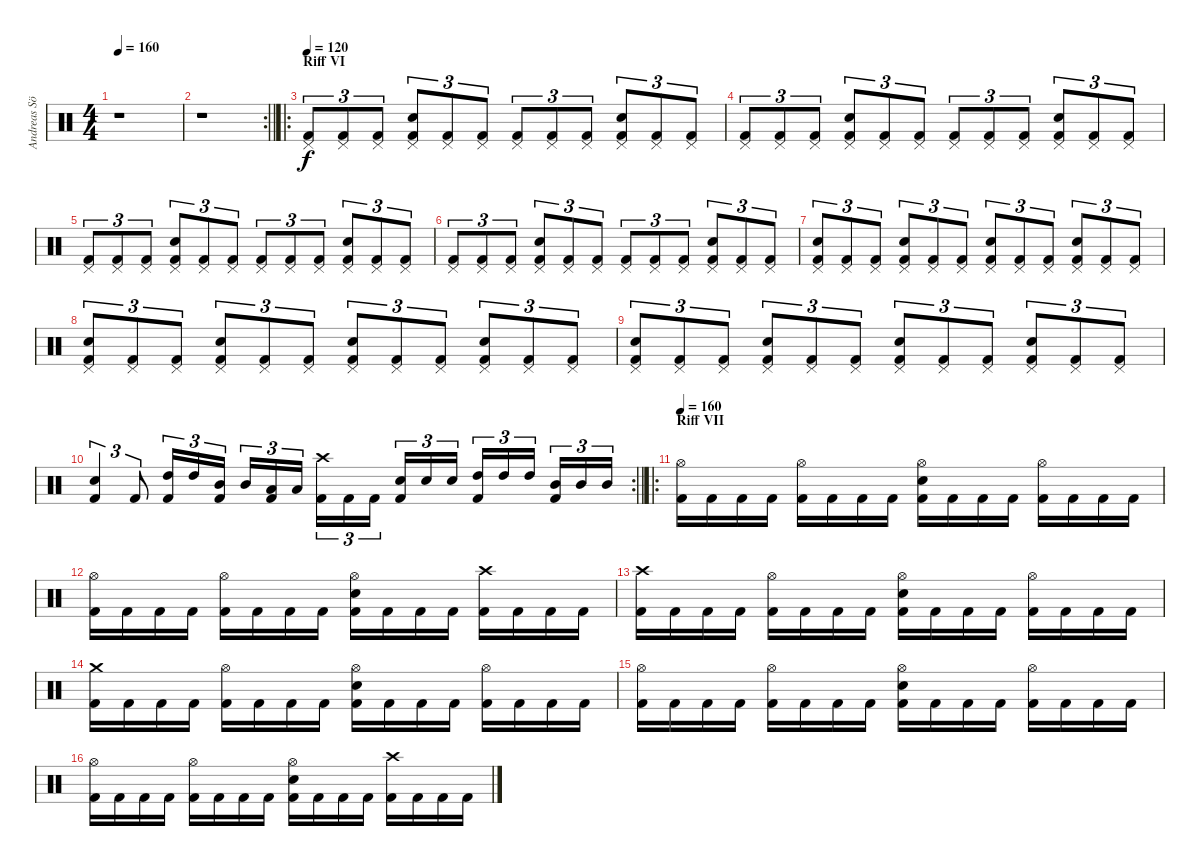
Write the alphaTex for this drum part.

\track ("Andreas Söderlund" "Andreas Sö") {instrument percussion}
\staff {score}
\articulation defaults
\ts (4 4)
\tempo 160
\clef neutral
\ks c
r.1{dy f} |
\rc 2
\barLineRight lightlight
r.1 |
\ro
\section ("" "Riff VI")
\tempo 120
("Pedal Hi-Hat (hit)" "Kick (hit) 2").8{tu (3 2)} ("Pedal Hi-Hat (hit)" "Kick (hit) 2").8{tu (3 2)} ("Pedal Hi-Hat (hit)" "Kick (hit) 2").8{tu (3 2)} ("Pedal Hi-Hat (hit)" "Electric Snare (hit)" "Kick (hit) 2").8{tu (3 2)} ("Pedal Hi-Hat (hit)" "Kick (hit) 2").8{tu (3 2)} ("Pedal Hi-Hat (hit)" "Kick (hit) 2").8{tu (3 2)} ("Pedal Hi-Hat (hit)" "Kick (hit) 2").8{tu (3 2)} ("Pedal Hi-Hat (hit)" "Kick (hit) 2").8{tu (3 2)} ("Pedal Hi-Hat (hit)" "Kick (hit) 2").8{tu (3 2)} ("Pedal Hi-Hat (hit)" "Electric Snare (hit)" "Kick (hit) 2").8{tu (3 2)} ("Pedal Hi-Hat (hit)" "Kick (hit) 2").8{tu (3 2)} ("Pedal Hi-Hat (hit)" "Kick (hit) 2").8{tu (3 2)} |
("Pedal Hi-Hat (hit)" "Kick (hit) 2").8{tu (3 2)} ("Pedal Hi-Hat (hit)" "Kick (hit) 2").8{tu (3 2)} ("Pedal Hi-Hat (hit)" "Kick (hit) 2").8{tu (3 2)} ("Pedal Hi-Hat (hit)" "Electric Snare (hit)" "Kick (hit) 2").8{tu (3 2)} ("Pedal Hi-Hat (hit)" "Kick (hit) 2").8{tu (3 2)} ("Pedal Hi-Hat (hit)" "Kick (hit) 2").8{tu (3 2)} ("Pedal Hi-Hat (hit)" "Kick (hit) 2").8{tu (3 2)} ("Pedal Hi-Hat (hit)" "Kick (hit) 2").8{tu (3 2)} ("Pedal Hi-Hat (hit)" "Kick (hit) 2").8{tu (3 2)} ("Pedal Hi-Hat (hit)" "Electric Snare (hit)" "Kick (hit) 2").8{tu (3 2)} ("Pedal Hi-Hat (hit)" "Kick (hit) 2").8{tu (3 2)} ("Pedal Hi-Hat (hit)" "Kick (hit) 2").8{tu (3 2)} |
("Pedal Hi-Hat (hit)" "Kick (hit) 2").8{tu (3 2)} ("Pedal Hi-Hat (hit)" "Kick (hit) 2").8{tu (3 2)} ("Pedal Hi-Hat (hit)" "Kick (hit) 2").8{tu (3 2)} ("Pedal Hi-Hat (hit)" "Electric Snare (hit)" "Kick (hit) 2").8{tu (3 2)} ("Pedal Hi-Hat (hit)" "Kick (hit) 2").8{tu (3 2)} ("Pedal Hi-Hat (hit)" "Kick (hit) 2").8{tu (3 2)} ("Pedal Hi-Hat (hit)" "Kick (hit) 2").8{tu (3 2)} ("Pedal Hi-Hat (hit)" "Kick (hit) 2").8{tu (3 2)} ("Pedal Hi-Hat (hit)" "Kick (hit) 2").8{tu (3 2)} ("Pedal Hi-Hat (hit)" "Electric Snare (hit)" "Kick (hit) 2").8{tu (3 2)} ("Pedal Hi-Hat (hit)" "Kick (hit) 2").8{tu (3 2)} ("Pedal Hi-Hat (hit)" "Kick (hit) 2").8{tu (3 2)} |
("Pedal Hi-Hat (hit)" "Kick (hit) 2").8{tu (3 2)} ("Pedal Hi-Hat (hit)" "Kick (hit) 2").8{tu (3 2)} ("Pedal Hi-Hat (hit)" "Kick (hit) 2").8{tu (3 2)} ("Pedal Hi-Hat (hit)" "Electric Snare (hit)" "Kick (hit) 2").8{tu (3 2)} ("Pedal Hi-Hat (hit)" "Kick (hit) 2").8{tu (3 2)} ("Pedal Hi-Hat (hit)" "Kick (hit) 2").8{tu (3 2)} ("Pedal Hi-Hat (hit)" "Kick (hit) 2").8{tu (3 2)} ("Pedal Hi-Hat (hit)" "Kick (hit) 2").8{tu (3 2)} ("Pedal Hi-Hat (hit)" "Kick (hit) 2").8{tu (3 2)} ("Pedal Hi-Hat (hit)" "Electric Snare (hit)" "Kick (hit) 2").8{tu (3 2)} ("Pedal Hi-Hat (hit)" "Kick (hit) 2").8{tu (3 2)} ("Pedal Hi-Hat (hit)" "Kick (hit) 2").8{tu (3 2)} |
("Pedal Hi-Hat (hit)" "Electric Snare (hit)" "Kick (hit) 2").8{tu (3 2)} ("Pedal Hi-Hat (hit)" "Kick (hit) 2").8{tu (3 2)} ("Pedal Hi-Hat (hit)" "Kick (hit) 2").8{tu (3 2)} ("Pedal Hi-Hat (hit)" "Electric Snare (hit)" "Kick (hit) 2").8{tu (3 2)} ("Pedal Hi-Hat (hit)" "Kick (hit) 2").8{tu (3 2)} ("Pedal Hi-Hat (hit)" "Kick (hit) 2").8{tu (3 2)} ("Pedal Hi-Hat (hit)" "Electric Snare (hit)" "Kick (hit) 2").8{tu (3 2)} ("Pedal Hi-Hat (hit)" "Kick (hit) 2").8{tu (3 2)} ("Pedal Hi-Hat (hit)" "Kick (hit) 2").8{tu (3 2)} ("Pedal Hi-Hat (hit)" "Electric Snare (hit)" "Kick (hit) 2").8{tu (3 2)} ("Pedal Hi-Hat (hit)" "Kick (hit) 2").8{tu (3 2)} ("Pedal Hi-Hat (hit)" "Kick (hit) 2").8{tu (3 2)} |
("Pedal Hi-Hat (hit)" "Electric Snare (hit)" "Kick (hit) 2").8{tu (3 2)} ("Pedal Hi-Hat (hit)" "Kick (hit) 2").8{tu (3 2)} ("Pedal Hi-Hat (hit)" "Kick (hit) 2").8{tu (3 2)} ("Pedal Hi-Hat (hit)" "Electric Snare (hit)" "Kick (hit) 2").8{tu (3 2)} ("Pedal Hi-Hat (hit)" "Kick (hit) 2").8{tu (3 2)} ("Pedal Hi-Hat (hit)" "Kick (hit) 2").8{tu (3 2)} ("Pedal Hi-Hat (hit)" "Electric Snare (hit)" "Kick (hit) 2").8{tu (3 2)} ("Pedal Hi-Hat (hit)" "Kick (hit) 2").8{tu (3 2)} ("Pedal Hi-Hat (hit)" "Kick (hit) 2").8{tu (3 2)} ("Pedal Hi-Hat (hit)" "Electric Snare (hit)" "Kick (hit) 2").8{tu (3 2)} ("Pedal Hi-Hat (hit)" "Kick (hit) 2").8{tu (3 2)} ("Pedal Hi-Hat (hit)" "Kick (hit) 2").8{tu (3 2)} |
("Pedal Hi-Hat (hit)" "Electric Snare (hit)" "Kick (hit) 2").8{tu (3 2)} ("Pedal Hi-Hat (hit)" "Kick (hit) 2").8{tu (3 2)} ("Pedal Hi-Hat (hit)" "Kick (hit) 2").8{tu (3 2)} ("Pedal Hi-Hat (hit)" "Electric Snare (hit)" "Kick (hit) 2").8{tu (3 2)} ("Pedal Hi-Hat (hit)" "Kick (hit) 2").8{tu (3 2)} ("Pedal Hi-Hat (hit)" "Kick (hit) 2").8{tu (3 2)} ("Pedal Hi-Hat (hit)" "Electric Snare (hit)" "Kick (hit) 2").8{tu (3 2)} ("Pedal Hi-Hat (hit)" "Kick (hit) 2").8{tu (3 2)} ("Pedal Hi-Hat (hit)" "Kick (hit) 2").8{tu (3 2)} ("Pedal Hi-Hat (hit)" "Electric Snare (hit)" "Kick (hit) 2").8{tu (3 2)} ("Pedal Hi-Hat (hit)" "Kick (hit) 2").8{tu (3 2)} ("Pedal Hi-Hat (hit)" "Kick (hit) 2").8{tu (3 2)} |
\rc 2
\barLineRight lightlight
("Electric Snare (hit)" "Kick (hit) 2").4{tu (3 2)} "Kick (hit) 2".8{tu (3 2)} ("High Tom (hit)" "Kick (hit) 2").16{tu (3 2)} "High Tom (hit)".16{tu (3 2)} ("Mid Tom (hit)" "Kick (hit) 2").16{tu (3 2) beam splitsecondary} "Mid Tom (hit)".16{tu (3 2)} ("Low Tom (hit)" "Kick (hit) 2").16{tu (3 2)} "Low Tom (hit)".16{tu (3 2)} ("Crash high (hit)" "Kick (hit) 2").16{tu (3 2)} "Kick (hit) 2".16{tu (3 2)} "Kick (hit) 2".16{tu (3 2) beam splitsecondary} ("Electric Snare (hit)" "Kick (hit) 2").16{tu (3 2)} "Electric Snare (hit)".16{tu (3 2)} "Electric Snare (hit)".16{tu (3 2)} ("High Tom (hit)" "Kick (hit) 2").16{tu (3 2)} "High Tom (hit)".16{tu (3 2)} "High Tom (hit)".16{tu (3 2) beam splitsecondary} ("Mid Tom (hit)" "Kick (hit) 2").16{tu (3 2)} "Mid Tom (hit)".16{tu (3 2)} "Mid Tom (hit)".16{tu (3 2)} |
\ro
\section ("" "Riff VII")
\tempo 160
("Hi-Hat (open)" "Kick (hit) 2").16 "Kick (hit) 2".16 "Kick (hit) 2".16 "Kick (hit) 2".16 ("Hi-Hat (open)" "Kick (hit) 2").16 "Kick (hit) 2".16 "Kick (hit) 2".16 "Kick (hit) 2".16 ("Hi-Hat (open)" "Electric Snare (hit)" "Kick (hit) 2").16 "Kick (hit) 2".16 "Kick (hit) 2".16 "Kick (hit) 2".16 ("Hi-Hat (open)" "Kick (hit) 2").16 "Kick (hit) 2".16 "Kick (hit) 2".16 "Kick (hit) 2".16 |
("Hi-Hat (open)" "Kick (hit) 2").16 "Kick (hit) 2".16 "Kick (hit) 2".16 "Kick (hit) 2".16 ("Hi-Hat (open)" "Kick (hit) 2").16 "Kick (hit) 2".16 "Kick (hit) 2".16 "Kick (hit) 2".16 ("Hi-Hat (open)" "Electric Snare (hit)" "Kick (hit) 2").16 "Kick (hit) 2".16 "Kick (hit) 2".16 "Kick (hit) 2".16 ("Crash high (hit)" "Kick (hit) 2").16 "Kick (hit) 2".16 "Kick (hit) 2".16 "Kick (hit) 2".16 |
("Crash high (hit)" "Kick (hit) 2").16 "Kick (hit) 2".16 "Kick (hit) 2".16 "Kick (hit) 2".16 ("Hi-Hat (open)" "Kick (hit) 2").16 "Kick (hit) 2".16 "Kick (hit) 2".16 "Kick (hit) 2".16 ("Hi-Hat (open)" "Electric Snare (hit)" "Kick (hit) 2").16 "Kick (hit) 2".16 "Kick (hit) 2".16 "Kick (hit) 2".16 ("Hi-Hat (open)" "Kick (hit) 2").16 "Kick (hit) 2".16 "Kick (hit) 2".16 "Kick (hit) 2".16 |
("Crash medium (hit)" "Kick (hit) 2").16 "Kick (hit) 2".16 "Kick (hit) 2".16 "Kick (hit) 2".16 ("Hi-Hat (open)" "Kick (hit) 2").16 "Kick (hit) 2".16 "Kick (hit) 2".16 "Kick (hit) 2".16 ("Hi-Hat (open)" "Electric Snare (hit)" "Kick (hit) 2").16 "Kick (hit) 2".16 "Kick (hit) 2".16 "Kick (hit) 2".16 ("Hi-Hat (open)" "Kick (hit) 2").16 "Kick (hit) 2".16 "Kick (hit) 2".16 "Kick (hit) 2".16 |
("Hi-Hat (open)" "Kick (hit) 2").16 "Kick (hit) 2".16 "Kick (hit) 2".16 "Kick (hit) 2".16 ("Hi-Hat (open)" "Kick (hit) 2").16 "Kick (hit) 2".16 "Kick (hit) 2".16 "Kick (hit) 2".16 ("Hi-Hat (open)" "Electric Snare (hit)" "Kick (hit) 2").16 "Kick (hit) 2".16 "Kick (hit) 2".16 "Kick (hit) 2".16 ("Hi-Hat (open)" "Kick (hit) 2").16 "Kick (hit) 2".16 "Kick (hit) 2".16 "Kick (hit) 2".16 |
("Hi-Hat (open)" "Kick (hit) 2").16 "Kick (hit) 2".16 "Kick (hit) 2".16 "Kick (hit) 2".16 ("Hi-Hat (open)" "Kick (hit) 2").16 "Kick (hit) 2".16 "Kick (hit) 2".16 "Kick (hit) 2".16 ("Hi-Hat (open)" "Electric Snare (hit)" "Kick (hit) 2").16 "Kick (hit) 2".16 "Kick (hit) 2".16 "Kick (hit) 2".16 ("Crash high (hit)" "Kick (hit) 2").16 "Kick (hit) 2".16 "Kick (hit) 2".16 "Kick (hit) 2".16
